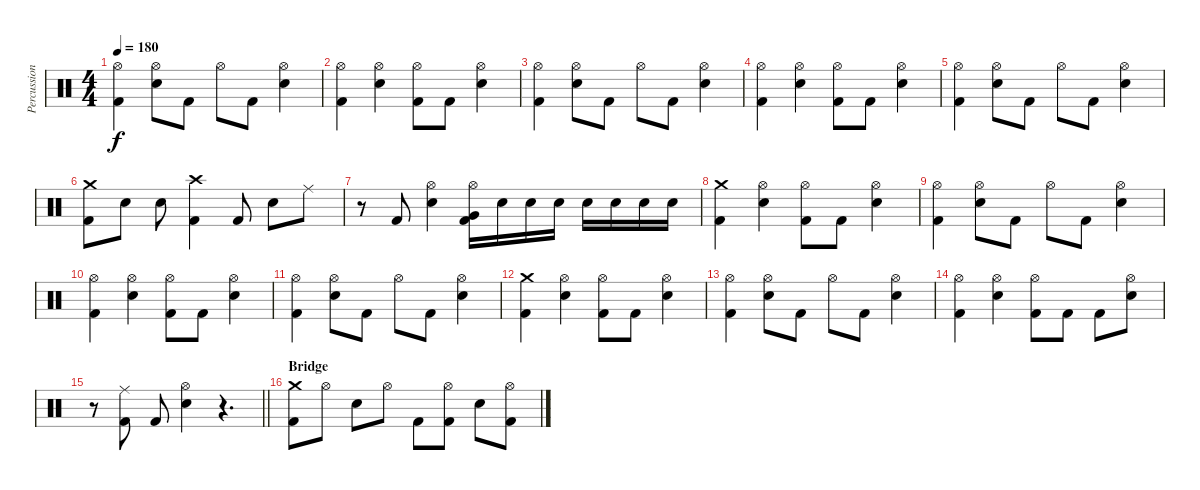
\track ("Percussion" "Percussion") {instrument percussion}
\staff {score}
\articulation defaults
\ts (4 4)
\tempo 180
\clef neutral
\ks c
("Hi-Hat (open)" "Kick (hit) 2").4{dy f} ("Hi-Hat (open)" "Snare (hit) 2").8 "Kick (hit) 2".8 "Hi-Hat (open)".8 "Kick (hit) 2".8 ("Hi-Hat (open)" "Snare (hit) 2").4 |
("Hi-Hat (open)" "Kick (hit) 2").4 ("Hi-Hat (open)" "Snare (hit) 2").4 ("Hi-Hat (open)" "Kick (hit) 2").8 "Kick (hit) 2".8 ("Hi-Hat (open)" "Snare (hit) 2").4 |
("Hi-Hat (open)" "Kick (hit) 2").4 ("Hi-Hat (open)" "Snare (hit) 2").8 "Kick (hit) 2".8 "Hi-Hat (open)".8 "Kick (hit) 2".8 ("Hi-Hat (open)" "Snare (hit) 2").4 |
("Hi-Hat (open)" "Kick (hit) 2").4 ("Hi-Hat (open)" "Snare (hit) 2").4 ("Hi-Hat (open)" "Kick (hit) 2").8 "Kick (hit) 2".8 ("Hi-Hat (open)" "Snare (hit) 2").4 |
("Hi-Hat (open)" "Kick (hit) 2").4 ("Hi-Hat (open)" "Snare (hit) 2").8 "Kick (hit) 2".8 "Hi-Hat (open)".8 "Kick (hit) 2".8 ("Hi-Hat (open)" "Snare (hit) 2").4 |
("Crash medium (hit)" "Kick (hit) 2").8 "Snare (hit) 2".8 "Snare (hit) 2".8 ("Crash high (hit)" "Kick (hit) 2").4 "Kick (hit) 2".8 "Snare (hit) 2".8 "Ride (middle)".8 |
r.8 "Kick (hit) 2".8 ("Hi-Hat (open)" "Snare (hit) 2").4 ("Hi-Hat (open)" "Very Low Tom (hit)" "Kick (hit) 2").16 "Snare (hit) 2".16 "Snare (hit) 2".16 "Snare (hit) 2".16 "Snare (hit) 2".16 "Snare (hit) 2".16 "Snare (hit) 2".16 "Snare (hit) 2".16 |
("Crash medium (hit)" "Kick (hit) 2").4 ("Hi-Hat (open)" "Snare (hit) 2").4 ("Hi-Hat (open)" "Kick (hit) 2").8 "Kick (hit) 2".8 ("Hi-Hat (open)" "Snare (hit) 2").4 |
("Hi-Hat (open)" "Kick (hit) 2").4 ("Hi-Hat (open)" "Snare (hit) 2").8 "Kick (hit) 2".8 "Hi-Hat (open)".8 "Kick (hit) 2".8 ("Hi-Hat (open)" "Snare (hit) 2").4 |
("Hi-Hat (open)" "Kick (hit) 2").4 ("Hi-Hat (open)" "Snare (hit) 2").4 ("Hi-Hat (open)" "Kick (hit) 2").8 "Kick (hit) 2".8 ("Hi-Hat (open)" "Snare (hit) 2").4 |
("Hi-Hat (open)" "Kick (hit) 2").4 ("Hi-Hat (open)" "Snare (hit) 2").8 "Kick (hit) 2".8 "Hi-Hat (open)".8 "Kick (hit) 2".8 ("Hi-Hat (open)" "Snare (hit) 2").4 |
("Crash medium (hit)" "Kick (hit) 2").4 ("Hi-Hat (open)" "Snare (hit) 2").4 ("Hi-Hat (open)" "Kick (hit) 2").8 "Kick (hit) 2".8 ("Hi-Hat (open)" "Snare (hit) 2").4 |
("Hi-Hat (open)" "Kick (hit) 2").4 ("Hi-Hat (open)" "Snare (hit) 2").8 "Kick (hit) 2".8 "Hi-Hat (open)".8 "Kick (hit) 2".8 ("Hi-Hat (open)" "Snare (hit) 2").4 |
("Hi-Hat (open)" "Kick (hit) 2").4 ("Hi-Hat (open)" "Snare (hit) 2").4 ("Hi-Hat (open)" "Kick (hit) 2").8 "Kick (hit) 2".8 "Kick (hit) 2".8 ("Hi-Hat (open)" "Snare (hit) 2").8 |
\barLineRight lightlight
r.8 ("Ride (middle)" "Kick (hit) 2").8 "Kick (hit) 2".8 ("Hi-Hat (open)" "Snare (hit) 2").4 r.4{d} |
\section ("" "Bridge")
("Crash medium (hit)" "Kick (hit) 2").8 "Hi-Hat (open)".8 "Snare (hit) 2".8 "Hi-Hat (open)".8 "Kick (hit) 2".8 ("Hi-Hat (open)" "Kick (hit) 2").8 "Snare (hit) 2".8 ("Hi-Hat (open)" "Kick (hit) 2").8
